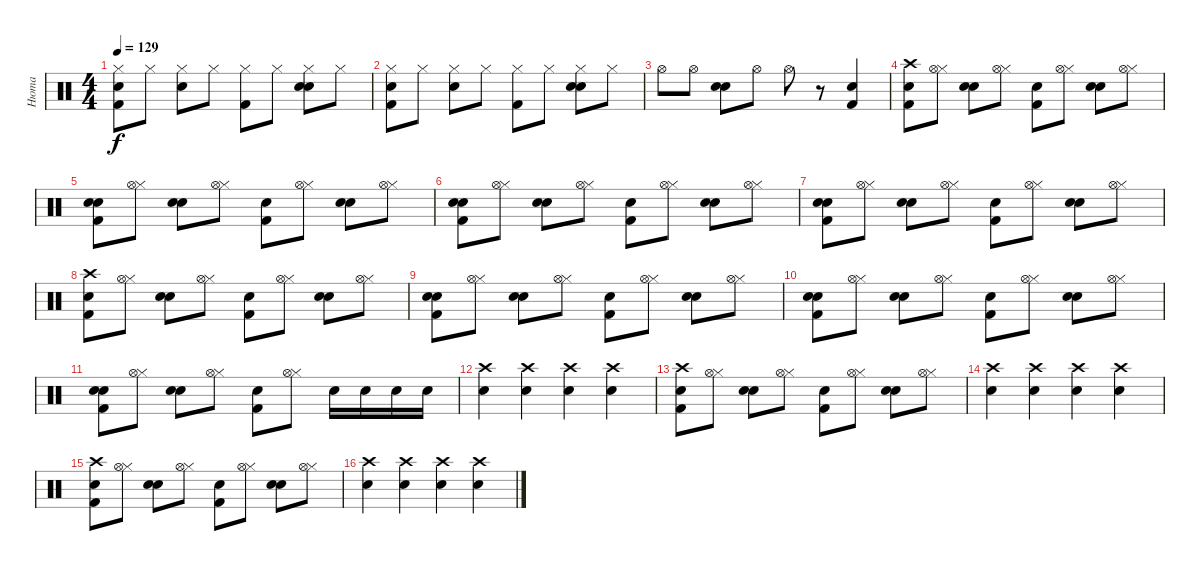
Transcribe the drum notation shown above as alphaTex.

\track ("Нюта" "Нюта") {instrument percussion}
\staff {score}
\articulation defaults
\ts (4 4)
\tempo 129
\clef neutral
\ks c
("Hi-Hat (closed)" "Kick (hit) 2" "Snare (hit)").8{dy f} "Hi-Hat (closed)".8 ("Hi-Hat (closed)" "Electric Snare (hit)").8 "Hi-Hat (closed)".8 ("Hi-Hat (closed)" "Kick (hit) 2").8 "Hi-Hat (closed)".8 ("Electric Snare (hit)" "Hi-Hat (closed)" "Snare (hit)").8 "Hi-Hat (closed)".8 |
("Hi-Hat (closed)" "Kick (hit) 2" "Snare (hit)").8 "Hi-Hat (closed)".8 ("Hi-Hat (closed)" "Electric Snare (hit)").8 "Hi-Hat (closed)".8 ("Hi-Hat (closed)" "Kick (hit) 2").8 "Hi-Hat (closed)".8 ("Electric Snare (hit)" "Hi-Hat (closed)" "Snare (hit)").8 "Hi-Hat (closed)".8 |
"Hi-Hat (open)".8 "Hi-Hat (open)".8 ("Snare (hit)" "Snare (hit) 2").8 "Hi-Hat (open)".8 "Hi-Hat (open)".8 r.8 ("Electric Snare (hit)" "Kick (hit) 2").4 |
("Snare (hit)" "Kick (hit) 2" "Crash high (hit)").8 ("Hi-Hat (closed)" "Hi-Hat (open)").8 ("Snare (hit)" "Electric Snare (hit)").8 ("Hi-Hat (closed)" "Hi-Hat (open)").8 ("Snare (hit)" "Kick (hit) 2").8 ("Hi-Hat (closed)" "Hi-Hat (open)").8 ("Snare (hit)" "Electric Snare (hit)").8 ("Hi-Hat (closed)" "Hi-Hat (open)").8 |
("Snare (hit)" "Kick (hit) 2" "Snare (hit)").8 ("Hi-Hat (closed)" "Hi-Hat (open)").8 ("Snare (hit)" "Electric Snare (hit)").8 ("Hi-Hat (closed)" "Hi-Hat (open)").8 ("Snare (hit)" "Kick (hit) 2").8 ("Hi-Hat (closed)" "Hi-Hat (open)").8 ("Snare (hit)" "Electric Snare (hit)").8 ("Hi-Hat (closed)" "Hi-Hat (open)").8 |
("Snare (hit)" "Kick (hit) 2" "Snare (hit)").8 ("Hi-Hat (closed)" "Hi-Hat (open)").8 ("Snare (hit)" "Electric Snare (hit)").8 ("Hi-Hat (closed)" "Hi-Hat (open)").8 ("Snare (hit)" "Kick (hit) 2").8 ("Hi-Hat (closed)" "Hi-Hat (open)").8 ("Snare (hit)" "Electric Snare (hit)").8 ("Hi-Hat (closed)" "Hi-Hat (open)").8 |
("Snare (hit)" "Kick (hit) 2" "Snare (hit)").8 ("Hi-Hat (closed)" "Hi-Hat (open)").8 ("Snare (hit)" "Electric Snare (hit)").8 ("Hi-Hat (closed)" "Hi-Hat (open)").8 ("Snare (hit)" "Kick (hit) 2").8 ("Hi-Hat (closed)" "Hi-Hat (open)").8 ("Snare (hit)" "Electric Snare (hit)").8 ("Hi-Hat (closed)" "Hi-Hat (open)").8 |
("Snare (hit)" "Kick (hit) 2" "Crash high (hit)").8 ("Hi-Hat (closed)" "Hi-Hat (open)").8 ("Snare (hit)" "Electric Snare (hit)").8 ("Hi-Hat (closed)" "Hi-Hat (open)").8 ("Snare (hit)" "Kick (hit) 2").8 ("Hi-Hat (closed)" "Hi-Hat (open)").8 ("Snare (hit)" "Electric Snare (hit)").8 ("Hi-Hat (closed)" "Hi-Hat (open)").8 |
("Snare (hit)" "Kick (hit) 2" "Snare (hit)").8 ("Hi-Hat (closed)" "Hi-Hat (open)").8 ("Snare (hit)" "Electric Snare (hit)").8 ("Hi-Hat (closed)" "Hi-Hat (open)").8 ("Snare (hit)" "Kick (hit) 2").8 ("Hi-Hat (closed)" "Hi-Hat (open)").8 ("Snare (hit)" "Electric Snare (hit)").8 ("Hi-Hat (closed)" "Hi-Hat (open)").8 |
("Snare (hit)" "Kick (hit) 2" "Snare (hit)").8 ("Hi-Hat (closed)" "Hi-Hat (open)").8 ("Snare (hit)" "Electric Snare (hit)").8 ("Hi-Hat (closed)" "Hi-Hat (open)").8 ("Snare (hit)" "Kick (hit) 2").8 ("Hi-Hat (closed)" "Hi-Hat (open)").8 ("Snare (hit)" "Electric Snare (hit)").8 ("Hi-Hat (closed)" "Hi-Hat (open)").8 |
("Snare (hit)" "Kick (hit) 2" "Snare (hit)").8 ("Hi-Hat (closed)" "Hi-Hat (open)").8 ("Snare (hit)" "Electric Snare (hit)").8 ("Hi-Hat (closed)" "Hi-Hat (open)").8 ("Snare (hit)" "Kick (hit) 2").8 ("Hi-Hat (closed)" "Hi-Hat (open)").8 "Electric Snare (hit)".16 "Electric Snare (hit)".16 "Electric Snare (hit)".16 "Electric Snare (hit)".16 |
("Electric Snare (hit)" "Crash high (hit)").4 ("Electric Snare (hit)" "Crash high (hit)").4 ("Electric Snare (hit)" "Crash high (hit)").4 ("Electric Snare (hit)" "Crash high (hit)").4 |
("Snare (hit)" "Kick (hit) 2" "Crash high (hit)").8 ("Hi-Hat (closed)" "Hi-Hat (open)").8 ("Snare (hit)" "Electric Snare (hit)").8 ("Hi-Hat (closed)" "Hi-Hat (open)").8 ("Snare (hit)" "Kick (hit) 2").8 ("Hi-Hat (closed)" "Hi-Hat (open)").8 ("Snare (hit)" "Electric Snare (hit)").8 ("Hi-Hat (closed)" "Hi-Hat (open)").8 |
("Electric Snare (hit)" "Crash high (hit)").4 ("Electric Snare (hit)" "Crash high (hit)").4 ("Electric Snare (hit)" "Crash high (hit)").4 ("Electric Snare (hit)" "Crash high (hit)").4 |
("Snare (hit)" "Kick (hit) 2" "Crash high (hit)").8 ("Hi-Hat (closed)" "Hi-Hat (open)").8 ("Snare (hit)" "Electric Snare (hit)").8 ("Hi-Hat (closed)" "Hi-Hat (open)").8 ("Snare (hit)" "Kick (hit) 2").8 ("Hi-Hat (closed)" "Hi-Hat (open)").8 ("Snare (hit)" "Electric Snare (hit)").8 ("Hi-Hat (closed)" "Hi-Hat (open)").8 |
("Electric Snare (hit)" "Crash high (hit)").4 ("Electric Snare (hit)" "Crash high (hit)").4 ("Electric Snare (hit)" "Crash high (hit)").4 ("Electric Snare (hit)" "Crash high (hit)").4
